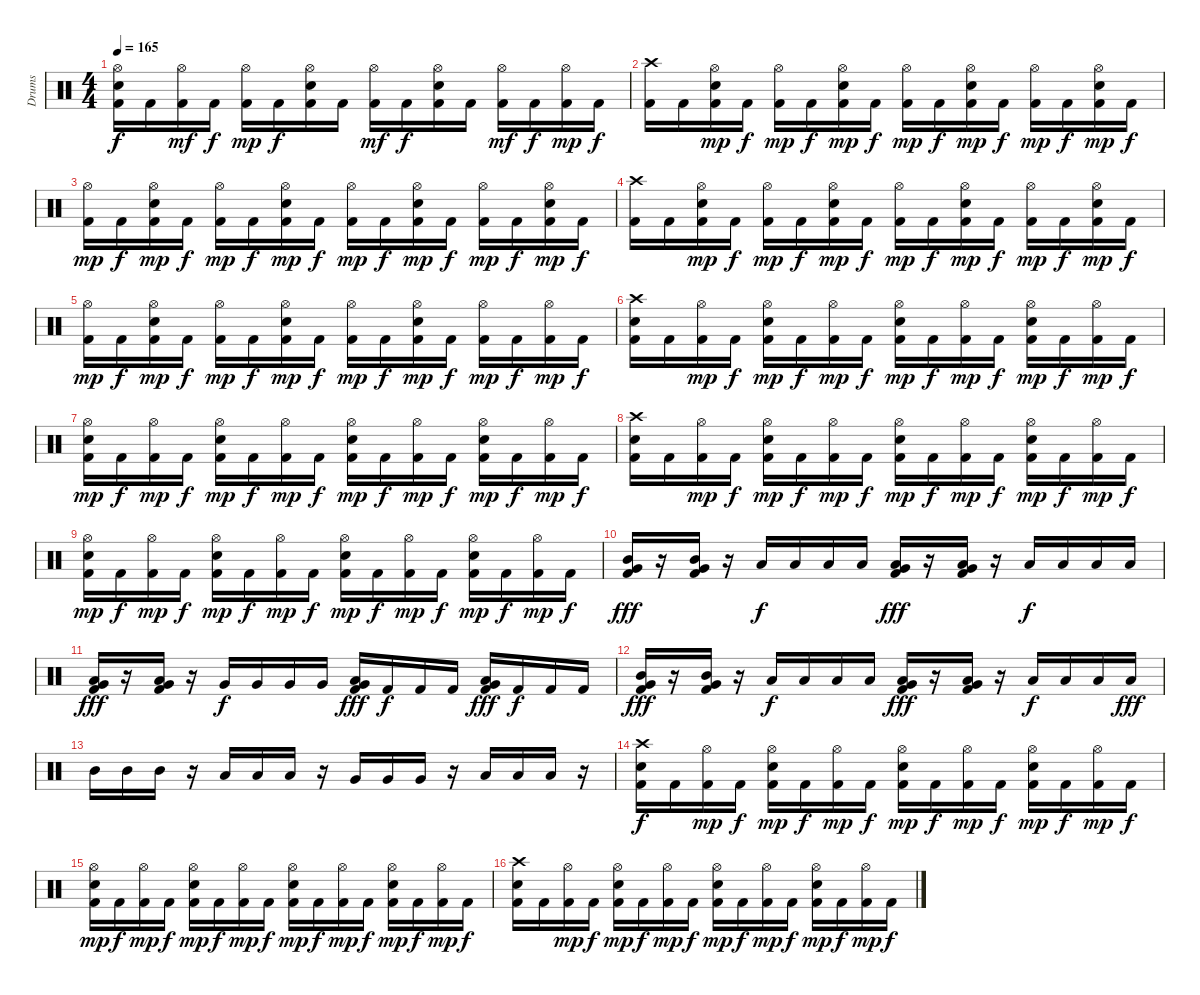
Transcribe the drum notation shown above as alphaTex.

\track ("Drums" "Drums") {instrument percussion}
\staff {score}
\articulation defaults
\ts (4 4)
\tempo 165
\clef neutral
\ks c
("Hi-Hat (open)" "Snare (hit) 2" "Kick (hit) 2").16{dy f} "Kick (hit) 2".16 ("Hi-Hat (open)" "Kick (hit) 2").16{dy mf} "Kick (hit) 2".16{dy f} ("Hi-Hat (open)" "Kick (hit) 2").16{dy mp} "Kick (hit) 2".16{dy f} ("Hi-Hat (open)" "Snare (hit) 2" "Kick (hit) 2").16 "Kick (hit) 2".16 ("Hi-Hat (open)" "Kick (hit) 2").16{dy mf} "Kick (hit) 2".16{dy f} ("Hi-Hat (open)" "Snare (hit) 2" "Kick (hit) 2").16 "Kick (hit) 2".16 ("Hi-Hat (open)" "Kick (hit) 2").16{dy mf} "Kick (hit) 2".16{dy f} ("Hi-Hat (open)" "Kick (hit) 2").16{dy mp} "Kick (hit) 2".16{dy f} |
("Crash high (hit)" "Kick (hit) 2").16 "Kick (hit) 2".16 ("Hi-Hat (open)" "Snare (hit) 2" "Kick (hit) 2").16{dy mp} "Kick (hit) 2".16{dy f} ("Hi-Hat (open)" "Kick (hit) 2").16{dy mp} "Kick (hit) 2".16{dy f} ("Hi-Hat (open)" "Snare (hit) 2" "Kick (hit) 2").16{dy mp} "Kick (hit) 2".16{dy f} ("Hi-Hat (open)" "Kick (hit) 2").16{dy mp} "Kick (hit) 2".16{dy f} ("Hi-Hat (open)" "Snare (hit) 2" "Kick (hit) 2").16{dy mp} "Kick (hit) 2".16{dy f} ("Hi-Hat (open)" "Kick (hit) 2").16{dy mp} "Kick (hit) 2".16{dy f} ("Hi-Hat (open)" "Snare (hit) 2" "Kick (hit) 2").16{dy mp} "Kick (hit) 2".16{dy f} |
("Hi-Hat (open)" "Kick (hit) 2").16{dy mp} "Kick (hit) 2".16{dy f} ("Hi-Hat (open)" "Snare (hit) 2" "Kick (hit) 2").16{dy mp} "Kick (hit) 2".16{dy f} ("Hi-Hat (open)" "Kick (hit) 2").16{dy mp} "Kick (hit) 2".16{dy f} ("Hi-Hat (open)" "Snare (hit) 2" "Kick (hit) 2").16{dy mp} "Kick (hit) 2".16{dy f} ("Hi-Hat (open)" "Kick (hit) 2").16{dy mp} "Kick (hit) 2".16{dy f} ("Hi-Hat (open)" "Snare (hit) 2" "Kick (hit) 2").16{dy mp} "Kick (hit) 2".16{dy f} ("Hi-Hat (open)" "Kick (hit) 2").16{dy mp} "Kick (hit) 2".16{dy f} ("Hi-Hat (open)" "Snare (hit) 2" "Kick (hit) 2").16{dy mp} "Kick (hit) 2".16{dy f} |
("Crash high (hit)" "Kick (hit) 2").16 "Kick (hit) 2".16 ("Hi-Hat (open)" "Snare (hit) 2" "Kick (hit) 2").16{dy mp} "Kick (hit) 2".16{dy f} ("Hi-Hat (open)" "Kick (hit) 2").16{dy mp} "Kick (hit) 2".16{dy f} ("Hi-Hat (open)" "Snare (hit) 2" "Kick (hit) 2").16{dy mp} "Kick (hit) 2".16{dy f} ("Hi-Hat (open)" "Kick (hit) 2").16{dy mp} "Kick (hit) 2".16{dy f} ("Hi-Hat (open)" "Snare (hit) 2" "Kick (hit) 2").16{dy mp} "Kick (hit) 2".16{dy f} ("Hi-Hat (open)" "Kick (hit) 2").16{dy mp} "Kick (hit) 2".16{dy f} ("Hi-Hat (open)" "Snare (hit) 2" "Kick (hit) 2").16{dy mp} "Kick (hit) 2".16{dy f} |
("Hi-Hat (open)" "Kick (hit) 2").16{dy mp} "Kick (hit) 2".16{dy f} ("Hi-Hat (open)" "Snare (hit) 2" "Kick (hit) 2").16{dy mp} "Kick (hit) 2".16{dy f} ("Hi-Hat (open)" "Kick (hit) 2").16{dy mp} "Kick (hit) 2".16{dy f} ("Hi-Hat (open)" "Snare (hit) 2" "Kick (hit) 2").16{dy mp} "Kick (hit) 2".16{dy f} ("Hi-Hat (open)" "Kick (hit) 2").16{dy mp} "Kick (hit) 2".16{dy f} ("Hi-Hat (open)" "Snare (hit) 2" "Kick (hit) 2").16{dy mp} "Kick (hit) 2".16{dy f} ("Hi-Hat (open)" "Kick (hit) 2").16{dy mp} "Kick (hit) 2".16{dy f} ("Hi-Hat (open)" "Kick (hit) 2").16{dy mp} "Kick (hit) 2".16{dy f} |
("Crash high (hit)" "Snare (hit) 2" "Kick (hit) 2").16 "Kick (hit) 2".16 ("Hi-Hat (open)" "Kick (hit) 2").16{dy mp} "Kick (hit) 2".16{dy f} ("Hi-Hat (open)" "Snare (hit) 2" "Kick (hit) 2").16{dy mp} "Kick (hit) 2".16{dy f} ("Hi-Hat (open)" "Kick (hit) 2").16{dy mp} "Kick (hit) 2".16{dy f} ("Hi-Hat (open)" "Snare (hit) 2" "Kick (hit) 2").16{dy mp} "Kick (hit) 2".16{dy f} ("Hi-Hat (open)" "Kick (hit) 2").16{dy mp} "Kick (hit) 2".16{dy f} ("Hi-Hat (open)" "Snare (hit) 2" "Kick (hit) 2").16{dy mp} "Kick (hit) 2".16{dy f} ("Hi-Hat (open)" "Kick (hit) 2").16{dy mp} "Kick (hit) 2".16{dy f} |
("Hi-Hat (open)" "Snare (hit) 2" "Kick (hit) 2").16{dy mp} "Kick (hit) 2".16{dy f} ("Hi-Hat (open)" "Kick (hit) 2").16{dy mp} "Kick (hit) 2".16{dy f} ("Hi-Hat (open)" "Snare (hit) 2" "Kick (hit) 2").16{dy mp} "Kick (hit) 2".16{dy f} ("Hi-Hat (open)" "Kick (hit) 2").16{dy mp} "Kick (hit) 2".16{dy f} ("Hi-Hat (open)" "Snare (hit) 2" "Kick (hit) 2").16{dy mp} "Kick (hit) 2".16{dy f} ("Hi-Hat (open)" "Kick (hit) 2").16{dy mp} "Kick (hit) 2".16{dy f} ("Hi-Hat (open)" "Snare (hit) 2" "Kick (hit) 2").16{dy mp} "Kick (hit) 2".16{dy f} ("Hi-Hat (open)" "Kick (hit) 2").16{dy mp} "Kick (hit) 2".16{dy f} |
("Crash high (hit)" "Snare (hit) 2" "Kick (hit) 2").16 "Kick (hit) 2".16 ("Hi-Hat (open)" "Kick (hit) 2").16{dy mp} "Kick (hit) 2".16{dy f} ("Hi-Hat (open)" "Snare (hit) 2" "Kick (hit) 2").16{dy mp} "Kick (hit) 2".16{dy f} ("Hi-Hat (open)" "Kick (hit) 2").16{dy mp} "Kick (hit) 2".16{dy f} ("Hi-Hat (open)" "Snare (hit) 2" "Kick (hit) 2").16{dy mp} "Kick (hit) 2".16{dy f} ("Hi-Hat (open)" "Kick (hit) 2").16{dy mp} "Kick (hit) 2".16{dy f} ("Hi-Hat (open)" "Snare (hit) 2" "Kick (hit) 2").16{dy mp} "Kick (hit) 2".16{dy f} ("Hi-Hat (open)" "Kick (hit) 2").16{dy mp} "Kick (hit) 2".16{dy f} |
("Hi-Hat (open)" "Snare (hit) 2" "Kick (hit) 2").16{dy mp} "Kick (hit) 2".16{dy f} ("Hi-Hat (open)" "Kick (hit) 2").16{dy mp} "Kick (hit) 2".16{dy f} ("Hi-Hat (open)" "Snare (hit) 2" "Kick (hit) 2").16{dy mp} "Kick (hit) 2".16{dy f} ("Hi-Hat (open)" "Kick (hit) 2").16{dy mp} "Kick (hit) 2".16{dy f} ("Hi-Hat (open)" "Snare (hit) 2" "Kick (hit) 2").16{dy mp} "Kick (hit) 2".16{dy f} ("Hi-Hat (open)" "Kick (hit) 2").16{dy mp} "Kick (hit) 2".16{dy f} ("Hi-Hat (open)" "Snare (hit) 2" "Kick (hit) 2").16{dy mp} "Kick (hit) 2".16{dy f} ("Hi-Hat (open)" "Kick (hit) 2").16{dy mp} "Kick (hit) 2".16{dy f} |
("Mid Tom (hit)" "Very Low Tom (hit)" "Kick (hit) 2").16{dy fff} r.16 ("Mid Tom (hit)" "Very Low Tom (hit)" "Kick (hit) 2").16 r.16 "Low Tom (hit)".16{dy f} "Low Tom (hit)".16 "Low Tom (hit)".16 "Low Tom (hit)".16 ("Low Tom (hit)" "Very Low Tom (hit)" "Kick (hit) 2").16{dy fff} r.16 ("Low Tom (hit)" "Very Low Tom (hit)" "Kick (hit) 2").16 r.16 "Low Tom (hit)".16{dy f} "Low Tom (hit)".16 "Low Tom (hit)".16 "Low Tom (hit)".16 |
("Very Low Tom (hit)" "Low Floor Tom (hit)" "Kick (hit) 2").16{dy fff} r.16 ("Very Low Tom (hit)" "Low Floor Tom (hit)" "Kick (hit) 2").16 r.16 "Very Low Tom (hit)".16{dy f} "Very Low Tom (hit)".16 "Very Low Tom (hit)".16 "Very Low Tom (hit)".16 ("Very Low Tom (hit)" "Low Floor Tom (hit)" "Kick (hit) 2").16{dy fff} "Kick (hit) 2".16{dy f} "Kick (hit) 2".16 "Kick (hit) 2".16 ("Very Low Tom (hit)" "Low Floor Tom (hit)" "Kick (hit) 2").16{dy fff} "Kick (hit) 2".16{dy f} "Kick (hit) 2".16 "Kick (hit) 2".16 |
("Mid Tom (hit)" "Very Low Tom (hit)" "Kick (hit) 2").16{dy fff} r.16 ("Mid Tom (hit)" "Very Low Tom (hit)" "Kick (hit) 2").16 r.16 "Low Tom (hit)".16{dy f} "Low Tom (hit)".16 "Low Tom (hit)".16 "Low Tom (hit)".16 ("Low Tom (hit)" "Very Low Tom (hit)" "Kick (hit) 2").16{dy fff} r.16 ("Low Tom (hit)" "Very Low Tom (hit)" "Kick (hit) 2").16 r.16 "Low Tom (hit)".16{dy f} "Low Tom (hit)".16 "Low Tom (hit)".16 "Low Tom (hit)".16{dy fff} |
"Mid Tom (hit)".16 "Mid Tom (hit)".16 "Mid Tom (hit)".16 r.16 "Low Tom (hit)".16 "Low Tom (hit)".16 "Low Tom (hit)".16 r.16 "Very Low Tom (hit)".16 "Very Low Tom (hit)".16 "Very Low Tom (hit)".16 r.16 "Low Floor Tom (hit)".16 "Low Floor Tom (hit)".16 "Low Floor Tom (hit)".16 r.16 |
("Crash high (hit)" "Snare (hit) 2" "Kick (hit) 2").16{dy f} "Kick (hit) 2".16 ("Hi-Hat (open)" "Kick (hit) 2").16{dy mp} "Kick (hit) 2".16{dy f} ("Hi-Hat (open)" "Snare (hit) 2" "Kick (hit) 2").16{dy mp} "Kick (hit) 2".16{dy f} ("Hi-Hat (open)" "Kick (hit) 2").16{dy mp} "Kick (hit) 2".16{dy f} ("Hi-Hat (open)" "Snare (hit) 2" "Kick (hit) 2").16{dy mp} "Kick (hit) 2".16{dy f} ("Hi-Hat (open)" "Kick (hit) 2").16{dy mp} "Kick (hit) 2".16{dy f} ("Hi-Hat (open)" "Snare (hit) 2" "Kick (hit) 2").16{dy mp} "Kick (hit) 2".16{dy f} ("Hi-Hat (open)" "Kick (hit) 2").16{dy mp} "Kick (hit) 2".16{dy f} |
("Hi-Hat (open)" "Snare (hit) 2" "Kick (hit) 2").16{dy mp} "Kick (hit) 2".16{dy f} ("Hi-Hat (open)" "Kick (hit) 2").16{dy mp} "Kick (hit) 2".16{dy f} ("Hi-Hat (open)" "Snare (hit) 2" "Kick (hit) 2").16{dy mp} "Kick (hit) 2".16{dy f} ("Hi-Hat (open)" "Kick (hit) 2").16{dy mp} "Kick (hit) 2".16{dy f} ("Hi-Hat (open)" "Snare (hit) 2" "Kick (hit) 2").16{dy mp} "Kick (hit) 2".16{dy f} ("Hi-Hat (open)" "Kick (hit) 2").16{dy mp} "Kick (hit) 2".16{dy f} ("Hi-Hat (open)" "Snare (hit) 2" "Kick (hit) 2").16{dy mp} "Kick (hit) 2".16{dy f} ("Hi-Hat (open)" "Kick (hit) 2").16{dy mp} "Kick (hit) 2".16{dy f} |
("Crash high (hit)" "Snare (hit) 2" "Kick (hit) 2").16 "Kick (hit) 2".16 ("Hi-Hat (open)" "Kick (hit) 2").16{dy mp} "Kick (hit) 2".16{dy f} ("Hi-Hat (open)" "Snare (hit) 2" "Kick (hit) 2").16{dy mp} "Kick (hit) 2".16{dy f} ("Hi-Hat (open)" "Kick (hit) 2").16{dy mp} "Kick (hit) 2".16{dy f} ("Hi-Hat (open)" "Snare (hit) 2" "Kick (hit) 2").16{dy mp} "Kick (hit) 2".16{dy f} ("Hi-Hat (open)" "Kick (hit) 2").16{dy mp} "Kick (hit) 2".16{dy f} ("Hi-Hat (open)" "Snare (hit) 2" "Kick (hit) 2").16{dy mp} "Kick (hit) 2".16{dy f} ("Hi-Hat (open)" "Kick (hit) 2").16{dy mp} "Kick (hit) 2".16{dy f}
